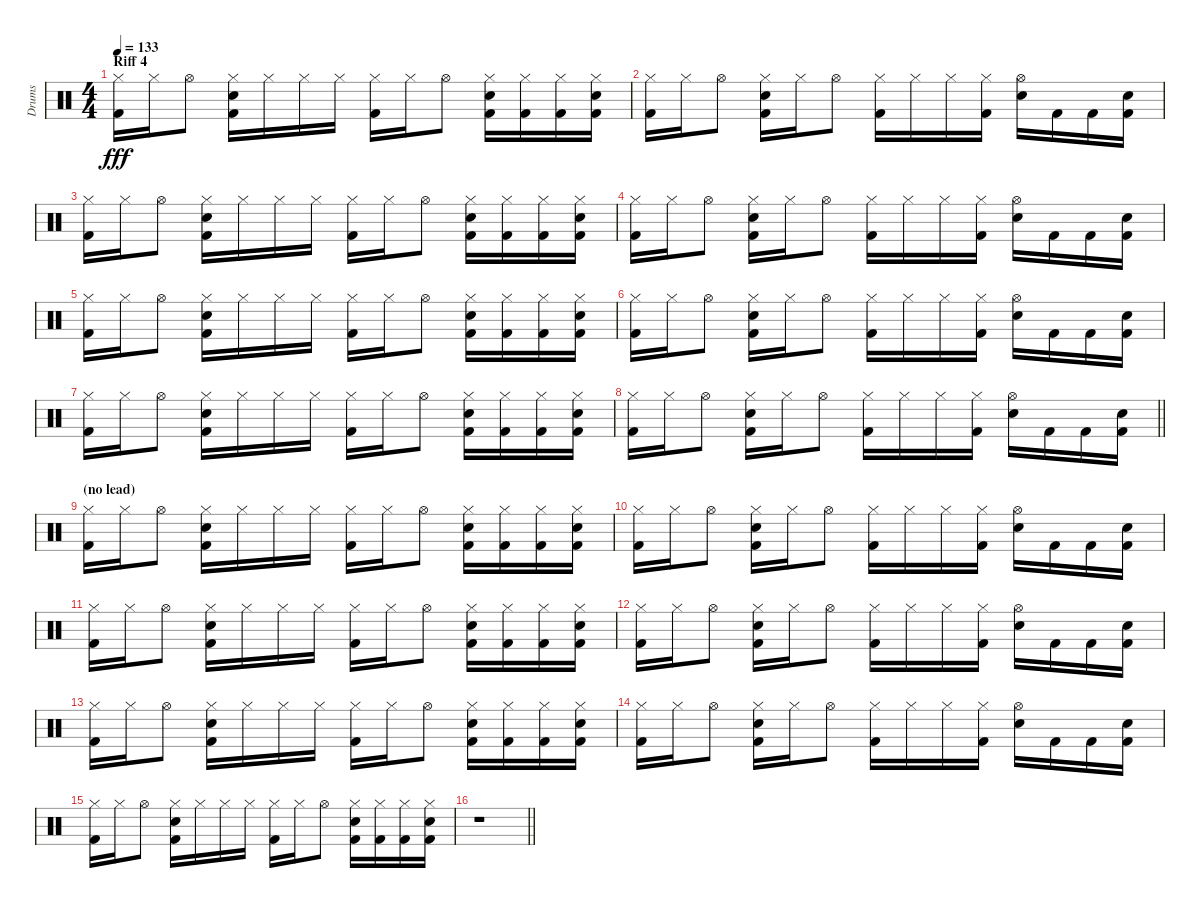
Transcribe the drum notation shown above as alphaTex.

\track ("Drums" "Drums") {instrument percussion}
\staff {score}
\articulation defaults
\ts (4 4)
\section ("" "Riff 4")
\tempo 133
\clef neutral
\ks c
("Kick (hit) 2" "Hi-Hat (closed)").16{dy fff} "Hi-Hat (closed)".16 "Hi-Hat (open)".8 ("Kick (hit) 2" "Snare (hit) 2" "Hi-Hat (closed)").16 "Hi-Hat (closed)".16 "Hi-Hat (closed)".16 "Hi-Hat (closed)".16 ("Kick (hit) 2" "Hi-Hat (closed)").16 "Hi-Hat (closed)".16 "Hi-Hat (open)".8 ("Kick (hit) 2" "Snare (hit) 2" "Hi-Hat (closed)").16 ("Kick (hit) 2" "Hi-Hat (closed)").16 ("Kick (hit) 2" "Hi-Hat (closed)").16 ("Kick (hit) 2" "Snare (hit) 2" "Hi-Hat (closed)").16 |
("Kick (hit) 2" "Hi-Hat (closed)").16 "Hi-Hat (closed)".16 "Hi-Hat (open)".8 ("Kick (hit) 2" "Snare (hit) 2" "Hi-Hat (closed)").16 "Hi-Hat (closed)".16 "Hi-Hat (open)".8 ("Kick (hit) 2" "Hi-Hat (closed)").16 "Hi-Hat (closed)".16 "Hi-Hat (closed)".16 ("Kick (hit) 2" "Hi-Hat (closed)").16 ("Snare (hit) 2" "Hi-Hat (open)").16 "Kick (hit) 2".16 "Kick (hit) 2".16 ("Kick (hit) 2" "Snare (hit) 2").16 |
("Kick (hit) 2" "Hi-Hat (closed)").16 "Hi-Hat (closed)".16 "Hi-Hat (open)".8 ("Kick (hit) 2" "Snare (hit) 2" "Hi-Hat (closed)").16 "Hi-Hat (closed)".16 "Hi-Hat (closed)".16 "Hi-Hat (closed)".16 ("Kick (hit) 2" "Hi-Hat (closed)").16 "Hi-Hat (closed)".16 "Hi-Hat (open)".8 ("Kick (hit) 2" "Snare (hit) 2" "Hi-Hat (closed)").16 ("Kick (hit) 2" "Hi-Hat (closed)").16 ("Kick (hit) 2" "Hi-Hat (closed)").16 ("Kick (hit) 2" "Snare (hit) 2" "Hi-Hat (closed)").16 |
("Kick (hit) 2" "Hi-Hat (closed)").16 "Hi-Hat (closed)".16 "Hi-Hat (open)".8 ("Kick (hit) 2" "Snare (hit) 2" "Hi-Hat (closed)").16 "Hi-Hat (closed)".16 "Hi-Hat (open)".8 ("Kick (hit) 2" "Hi-Hat (closed)").16 "Hi-Hat (closed)".16 "Hi-Hat (closed)".16 ("Kick (hit) 2" "Hi-Hat (closed)").16 ("Snare (hit) 2" "Hi-Hat (open)").16 "Kick (hit) 2".16 "Kick (hit) 2".16 ("Kick (hit) 2" "Snare (hit) 2").16 |
("Kick (hit) 2" "Hi-Hat (closed)").16 "Hi-Hat (closed)".16 "Hi-Hat (open)".8 ("Kick (hit) 2" "Snare (hit) 2" "Hi-Hat (closed)").16 "Hi-Hat (closed)".16 "Hi-Hat (closed)".16 "Hi-Hat (closed)".16 ("Kick (hit) 2" "Hi-Hat (closed)").16 "Hi-Hat (closed)".16 "Hi-Hat (open)".8 ("Kick (hit) 2" "Snare (hit) 2" "Hi-Hat (closed)").16 ("Kick (hit) 2" "Hi-Hat (closed)").16 ("Kick (hit) 2" "Hi-Hat (closed)").16 ("Kick (hit) 2" "Snare (hit) 2" "Hi-Hat (closed)").16 |
("Kick (hit) 2" "Hi-Hat (closed)").16 "Hi-Hat (closed)".16 "Hi-Hat (open)".8 ("Kick (hit) 2" "Snare (hit) 2" "Hi-Hat (closed)").16 "Hi-Hat (closed)".16 "Hi-Hat (open)".8 ("Kick (hit) 2" "Hi-Hat (closed)").16 "Hi-Hat (closed)".16 "Hi-Hat (closed)".16 ("Kick (hit) 2" "Hi-Hat (closed)").16 ("Snare (hit) 2" "Hi-Hat (open)").16 "Kick (hit) 2".16 "Kick (hit) 2".16 ("Kick (hit) 2" "Snare (hit) 2").16 |
("Kick (hit) 2" "Hi-Hat (closed)").16 "Hi-Hat (closed)".16 "Hi-Hat (open)".8 ("Kick (hit) 2" "Snare (hit) 2" "Hi-Hat (closed)").16 "Hi-Hat (closed)".16 "Hi-Hat (closed)".16 "Hi-Hat (closed)".16 ("Kick (hit) 2" "Hi-Hat (closed)").16 "Hi-Hat (closed)".16 "Hi-Hat (open)".8 ("Kick (hit) 2" "Snare (hit) 2" "Hi-Hat (closed)").16 ("Kick (hit) 2" "Hi-Hat (closed)").16 ("Kick (hit) 2" "Hi-Hat (closed)").16 ("Kick (hit) 2" "Snare (hit) 2" "Hi-Hat (closed)").16 |
\barLineRight lightlight
("Kick (hit) 2" "Hi-Hat (closed)").16 "Hi-Hat (closed)".16 "Hi-Hat (open)".8 ("Kick (hit) 2" "Snare (hit) 2" "Hi-Hat (closed)").16 "Hi-Hat (closed)".16 "Hi-Hat (open)".8 ("Kick (hit) 2" "Hi-Hat (closed)").16 "Hi-Hat (closed)".16 "Hi-Hat (closed)".16 ("Kick (hit) 2" "Hi-Hat (closed)").16 ("Snare (hit) 2" "Hi-Hat (open)").16 "Kick (hit) 2".16 "Kick (hit) 2".16 ("Kick (hit) 2" "Snare (hit) 2").16 |
\section ("" "(no lead)")
("Kick (hit) 2" "Hi-Hat (closed)").16 "Hi-Hat (closed)".16 "Hi-Hat (open)".8 ("Kick (hit) 2" "Snare (hit) 2" "Hi-Hat (closed)").16 "Hi-Hat (closed)".16 "Hi-Hat (closed)".16 "Hi-Hat (closed)".16 ("Kick (hit) 2" "Hi-Hat (closed)").16 "Hi-Hat (closed)".16 "Hi-Hat (open)".8 ("Kick (hit) 2" "Snare (hit) 2" "Hi-Hat (closed)").16 ("Kick (hit) 2" "Hi-Hat (closed)").16 ("Kick (hit) 2" "Hi-Hat (closed)").16 ("Kick (hit) 2" "Snare (hit) 2" "Hi-Hat (closed)").16 |
("Kick (hit) 2" "Hi-Hat (closed)").16 "Hi-Hat (closed)".16 "Hi-Hat (open)".8 ("Kick (hit) 2" "Snare (hit) 2" "Hi-Hat (closed)").16 "Hi-Hat (closed)".16 "Hi-Hat (open)".8 ("Kick (hit) 2" "Hi-Hat (closed)").16 "Hi-Hat (closed)".16 "Hi-Hat (closed)".16 ("Kick (hit) 2" "Hi-Hat (closed)").16 ("Snare (hit) 2" "Hi-Hat (open)").16 "Kick (hit) 2".16 "Kick (hit) 2".16 ("Kick (hit) 2" "Snare (hit) 2").16 |
("Kick (hit) 2" "Hi-Hat (closed)").16 "Hi-Hat (closed)".16 "Hi-Hat (open)".8 ("Kick (hit) 2" "Snare (hit) 2" "Hi-Hat (closed)").16 "Hi-Hat (closed)".16 "Hi-Hat (closed)".16 "Hi-Hat (closed)".16 ("Kick (hit) 2" "Hi-Hat (closed)").16 "Hi-Hat (closed)".16 "Hi-Hat (open)".8 ("Kick (hit) 2" "Snare (hit) 2" "Hi-Hat (closed)").16 ("Kick (hit) 2" "Hi-Hat (closed)").16 ("Kick (hit) 2" "Hi-Hat (closed)").16 ("Kick (hit) 2" "Snare (hit) 2" "Hi-Hat (closed)").16 |
("Kick (hit) 2" "Hi-Hat (closed)").16 "Hi-Hat (closed)".16 "Hi-Hat (open)".8 ("Kick (hit) 2" "Snare (hit) 2" "Hi-Hat (closed)").16 "Hi-Hat (closed)".16 "Hi-Hat (open)".8 ("Kick (hit) 2" "Hi-Hat (closed)").16 "Hi-Hat (closed)".16 "Hi-Hat (closed)".16 ("Kick (hit) 2" "Hi-Hat (closed)").16 ("Snare (hit) 2" "Hi-Hat (open)").16 "Kick (hit) 2".16 "Kick (hit) 2".16 ("Kick (hit) 2" "Snare (hit) 2").16 |
("Kick (hit) 2" "Hi-Hat (closed)").16 "Hi-Hat (closed)".16 "Hi-Hat (open)".8 ("Kick (hit) 2" "Snare (hit) 2" "Hi-Hat (closed)").16 "Hi-Hat (closed)".16 "Hi-Hat (closed)".16 "Hi-Hat (closed)".16 ("Kick (hit) 2" "Hi-Hat (closed)").16 "Hi-Hat (closed)".16 "Hi-Hat (open)".8 ("Kick (hit) 2" "Snare (hit) 2" "Hi-Hat (closed)").16 ("Kick (hit) 2" "Hi-Hat (closed)").16 ("Kick (hit) 2" "Hi-Hat (closed)").16 ("Kick (hit) 2" "Snare (hit) 2" "Hi-Hat (closed)").16 |
("Kick (hit) 2" "Hi-Hat (closed)").16 "Hi-Hat (closed)".16 "Hi-Hat (open)".8 ("Kick (hit) 2" "Snare (hit) 2" "Hi-Hat (closed)").16 "Hi-Hat (closed)".16 "Hi-Hat (open)".8 ("Kick (hit) 2" "Hi-Hat (closed)").16 "Hi-Hat (closed)".16 "Hi-Hat (closed)".16 ("Kick (hit) 2" "Hi-Hat (closed)").16 ("Snare (hit) 2" "Hi-Hat (open)").16 "Kick (hit) 2".16 "Kick (hit) 2".16 ("Kick (hit) 2" "Snare (hit) 2").16 |
("Kick (hit) 2" "Hi-Hat (closed)").16 "Hi-Hat (closed)".16 "Hi-Hat (open)".8 ("Kick (hit) 2" "Snare (hit) 2" "Hi-Hat (closed)").16 "Hi-Hat (closed)".16 "Hi-Hat (closed)".16 "Hi-Hat (closed)".16 ("Kick (hit) 2" "Hi-Hat (closed)").16 "Hi-Hat (closed)".16 "Hi-Hat (open)".8 ("Kick (hit) 2" "Snare (hit) 2" "Hi-Hat (closed)").16 ("Kick (hit) 2" "Hi-Hat (closed)").16 ("Kick (hit) 2" "Hi-Hat (closed)").16 ("Kick (hit) 2" "Snare (hit) 2" "Hi-Hat (closed)").16 |
\barLineRight lightlight
r.1
